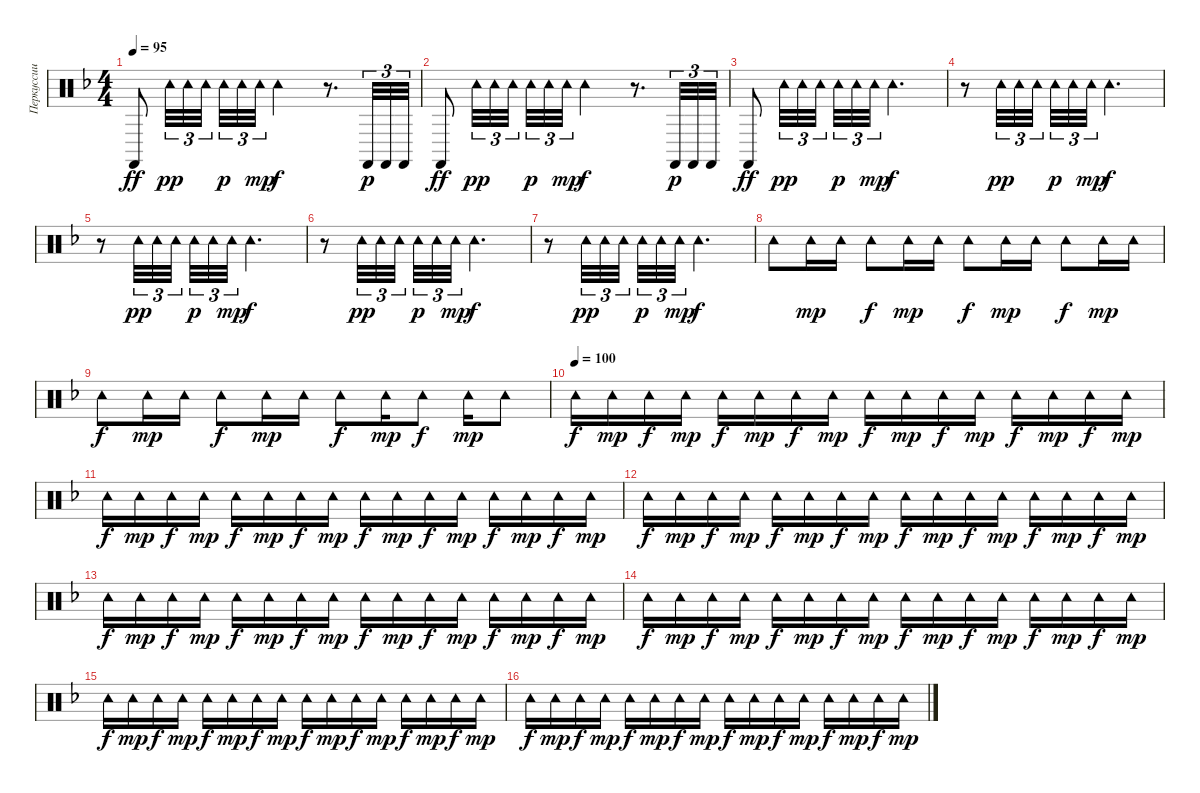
\track ("Перкуссии" "Перкуссии") {instrument percussion}
\staff {score}
\articulation defaults
\ts (4 4)
\tempo 95
\clef neutral
\ks dminor "Castanets (hit)".8{dy ff} "Tambourine (hit)".32{tu (3 2) dy pp} "Tambourine (hit)".32{tu (3 2)} "Tambourine (hit)".32{tu (3 2) beam splitsecondary} "Tambourine (hit)".32{tu (3 2) dy p} "Tambourine (hit)".32{tu (3 2)} "Tambourine (hit)".32{tu (3 2) dy mp} "Tambourine (hit)".2{dy f}
r.8{d} "Castanets (hit)".32{tu (3 2) dy p} "Castanets (hit)".32{tu (3 2)} "Castanets (hit)".32{tu (3 2)} |
"Castanets (hit)".8{dy ff} "Tambourine (hit)".32{tu (3 2) dy pp} "Tambourine (hit)".32{tu (3 2)} "Tambourine (hit)".32{tu (3 2) beam splitsecondary} "Tambourine (hit)".32{tu (3 2) dy p} "Tambourine (hit)".32{tu (3 2)} "Tambourine (hit)".32{tu (3 2) dy mp} "Tambourine (hit)".2{dy f} r.8{d} "Castanets (hit)".32{tu (3 2) dy p} "Castanets (hit)".32{tu (3 2)} "Castanets (hit)".32{tu (3 2)} |
"Castanets (hit)".8{dy ff} "Tambourine (hit)".32{tu (3 2) dy pp} "Tambourine (hit)".32{tu (3 2)} "Tambourine (hit)".32{tu (3 2) beam splitsecondary} "Tambourine (hit)".32{tu (3 2) dy p} "Tambourine (hit)".32{tu (3 2)} "Tambourine (hit)".32{tu (3 2) dy mp} "Tambourine (hit)".2{d dy f} |
r.8 "Tambourine (hit)".32{tu (3 2) dy pp} "Tambourine (hit)".32{tu (3 2)} "Tambourine (hit)".32{tu (3 2) beam splitsecondary} "Tambourine (hit)".32{tu (3 2) dy p} "Tambourine (hit)".32{tu (3 2)} "Tambourine (hit)".32{tu (3 2) dy mp} "Tambourine (hit)".2{d dy f} |
r.8 "Tambourine (hit)".32{tu (3 2) dy pp} "Tambourine (hit)".32{tu (3 2)} "Tambourine (hit)".32{tu (3 2) beam splitsecondary} "Tambourine (hit)".32{tu (3 2) dy p} "Tambourine (hit)".32{tu (3 2)} "Tambourine (hit)".32{tu (3 2) dy mp} "Tambourine (hit)".2{d dy f} |
r.8 "Tambourine (hit)".32{tu (3 2) dy pp} "Tambourine (hit)".32{tu (3 2)} "Tambourine (hit)".32{tu (3 2) beam splitsecondary} "Tambourine (hit)".32{tu (3 2) dy p} "Tambourine (hit)".32{tu (3 2)} "Tambourine (hit)".32{tu (3 2) dy mp} "Tambourine (hit)".2{d dy f} |
r.8 "Tambourine (hit)".32{tu (3 2) dy pp} "Tambourine (hit)".32{tu (3 2)} "Tambourine (hit)".32{tu (3 2) beam splitsecondary} "Tambourine (hit)".32{tu (3 2) dy p} "Tambourine (hit)".32{tu (3 2)} "Tambourine (hit)".32{tu (3 2) dy mp} "Tambourine (hit)".2{d dy f} |
"Tambourine (hit)".8 "Tambourine (hit)".16{dy mp} "Tambourine (hit)".16 "Tambourine (hit)".8{dy f} "Tambourine (hit)".16{dy mp} "Tambourine (hit)".16 "Tambourine (hit)".8{dy f} "Tambourine (hit)".16{dy mp} "Tambourine (hit)".16 "Tambourine (hit)".8{dy f} "Tambourine (hit)".16{dy mp} "Tambourine (hit)".16 |
"Tambourine (hit)".8{dy f} "Tambourine (hit)".16{dy mp} "Tambourine (hit)".16 "Tambourine (hit)".8{dy f} "Tambourine (hit)".16{dy mp} "Tambourine (hit)".16 "Tambourine (hit)".8{dy f} "Tambourine (hit)".16{dy mp} "Tambourine (hit)".8{dy f} "Tambourine (hit)".16{dy mp} "Tambourine (hit)".8 |
\tempo (100)
"Tambourine (hit)".16{dy f} "Tambourine (hit)".16{dy mp} "Tambourine (hit)".16{dy f} "Tambourine (hit)".16{dy mp} "Tambourine (hit)".16{dy f} "Tambourine (hit)".16{dy mp} "Tambourine (hit)".16{dy f} "Tambourine (hit)".16{dy mp} "Tambourine (hit)".16{dy f} "Tambourine (hit)".16{dy mp} "Tambourine (hit)".16{dy f} "Tambourine (hit)".16{dy mp} "Tambourine (hit)".16{dy f} "Tambourine (hit)".16{dy mp} "Tambourine (hit)".16{dy f} "Tambourine (hit)".16{dy mp} |
"Tambourine (hit)".16{dy f} "Tambourine (hit)".16{dy mp} "Tambourine (hit)".16{dy f} "Tambourine (hit)".16{dy mp} "Tambourine (hit)".16{dy f} "Tambourine (hit)".16{dy mp} "Tambourine (hit)".16{dy f} "Tambourine (hit)".16{dy mp} "Tambourine (hit)".16{dy f} "Tambourine (hit)".16{dy mp} "Tambourine (hit)".16{dy f} "Tambourine (hit)".16{dy mp} "Tambourine (hit)".16{dy f} "Tambourine (hit)".16{dy mp} "Tambourine (hit)".16{dy f} "Tambourine (hit)".16{dy mp} |
"Tambourine (hit)".16{dy f} "Tambourine (hit)".16{dy mp} "Tambourine (hit)".16{dy f} "Tambourine (hit)".16{dy mp} "Tambourine (hit)".16{dy f} "Tambourine (hit)".16{dy mp} "Tambourine (hit)".16{dy f} "Tambourine (hit)".16{dy mp} "Tambourine (hit)".16{dy f} "Tambourine (hit)".16{dy mp} "Tambourine (hit)".16{dy f} "Tambourine (hit)".16{dy mp} "Tambourine (hit)".16{dy f} "Tambourine (hit)".16{dy mp} "Tambourine (hit)".16{dy f} "Tambourine (hit)".16{dy mp} |
"Tambourine (hit)".16{dy f} "Tambourine (hit)".16{dy mp} "Tambourine (hit)".16{dy f} "Tambourine (hit)".16{dy mp} "Tambourine (hit)".16{dy f} "Tambourine (hit)".16{dy mp} "Tambourine (hit)".16{dy f} "Tambourine (hit)".16{dy mp} "Tambourine (hit)".16{dy f} "Tambourine (hit)".16{dy mp} "Tambourine (hit)".16{dy f} "Tambourine (hit)".16{dy mp} "Tambourine (hit)".16{dy f} "Tambourine (hit)".16{dy mp} "Tambourine (hit)".16{dy f} "Tambourine (hit)".16{dy mp} |
"Tambourine (hit)".16{dy f} "Tambourine (hit)".16{dy mp} "Tambourine (hit)".16{dy f} "Tambourine (hit)".16{dy mp} "Tambourine (hit)".16{dy f} "Tambourine (hit)".16{dy mp} "Tambourine (hit)".16{dy f} "Tambourine (hit)".16{dy mp} "Tambourine (hit)".16{dy f} "Tambourine (hit)".16{dy mp} "Tambourine (hit)".16{dy f} "Tambourine (hit)".16{dy mp} "Tambourine (hit)".16{dy f} "Tambourine (hit)".16{dy mp} "Tambourine (hit)".16{dy f} "Tambourine (hit)".16{dy mp} |
"Tambourine (hit)".16{dy f} "Tambourine (hit)".16{dy mp} "Tambourine (hit)".16{dy f} "Tambourine (hit)".16{dy mp} "Tambourine (hit)".16{dy f} "Tambourine (hit)".16{dy mp} "Tambourine (hit)".16{dy f} "Tambourine (hit)".16{dy mp} "Tambourine (hit)".16{dy f} "Tambourine (hit)".16{dy mp} "Tambourine (hit)".16{dy f} "Tambourine (hit)".16{dy mp} "Tambourine (hit)".16{dy f} "Tambourine (hit)".16{dy mp} "Tambourine (hit)".16{dy f} "Tambourine (hit)".16{dy mp} |
"Tambourine (hit)".16{dy f} "Tambourine (hit)".16{dy mp} "Tambourine (hit)".16{dy f} "Tambourine (hit)".16{dy mp} "Tambourine (hit)".16{dy f} "Tambourine (hit)".16{dy mp} "Tambourine (hit)".16{dy f} "Tambourine (hit)".16{dy mp} "Tambourine (hit)".16{dy f} "Tambourine (hit)".16{dy mp} "Tambourine (hit)".16{dy f} "Tambourine (hit)".16{dy mp} "Tambourine (hit)".16{dy f} "Tambourine (hit)".16{dy mp} "Tambourine (hit)".16{dy f} "Tambourine (hit)".16{dy mp}
